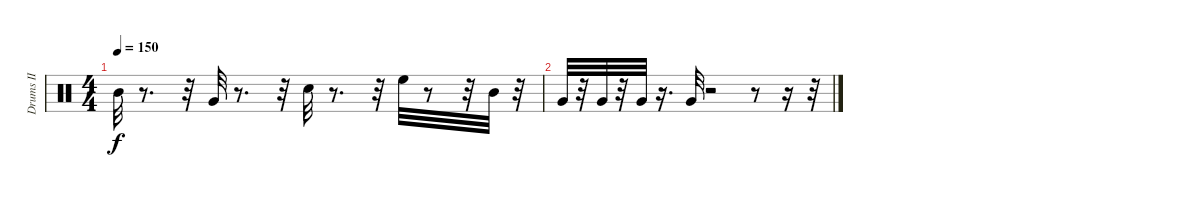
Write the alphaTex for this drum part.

\track ("Drums II" "Drums II") {instrument percussion}
\staff {score}
\articulation defaults
\ts (4 4)
\tempo 150
\clef neutral
\ks c "Mid Tom (hit)".32{dy f volume 5}
r.8{d} r.32 "Very Low Tom (hit)".32{volume 4} r.8{d} r.32 "Snare (hit) 2".32{volume 3} r.8{d} r.32 "High Floor Tom (hit)".32{volume 2} r.8 r.32 "Mid Tom (hit)".32{volume 2} r.32 |
"Very Low Tom (hit)".32{volume 2} r.32 "Very Low Tom (hit)".32{volume 2} r.32 "Very Low Tom (hit)".32{volume 1} r.16{d} "Very Low Tom (hit)".32{volume 1} r.2 r.8 r.16 r.32
